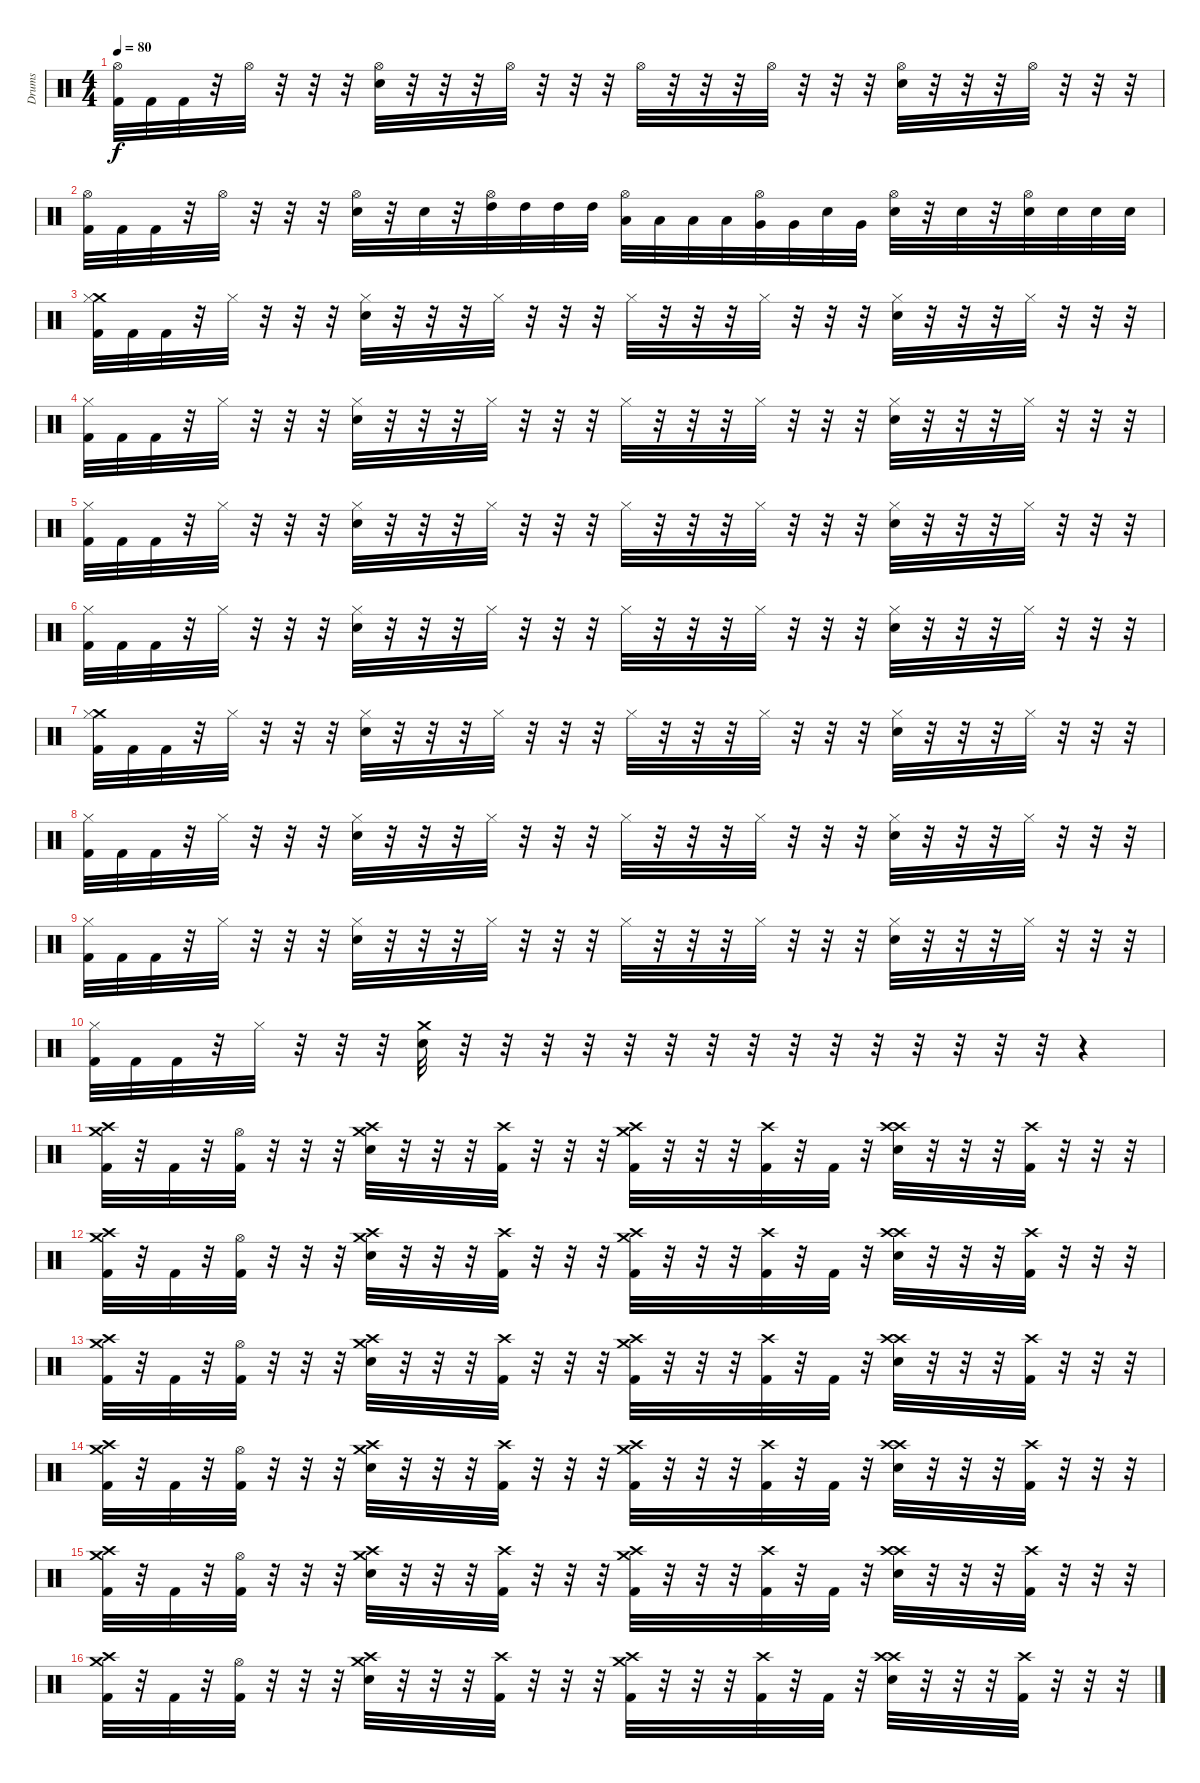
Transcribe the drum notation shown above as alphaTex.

\track ("Drums" "Drums") {instrument percussion}
\staff {score}
\articulation defaults
\ts (4 4)
\tempo 80
\clef neutral
\ks c
("Hi-Hat (open)" "Kick (hit) 2").32{dy f} "Kick (hit) 2".32 "Kick (hit) 2".32 r.32 "Hi-Hat (open)".32 r.32 r.32 r.32 ("Hi-Hat (open)" "Electric Snare (hit)").32 r.32 r.32 r.32 "Hi-Hat (open)".32 r.32 r.32 r.32 "Hi-Hat (open)".32 r.32 r.32 r.32 "Hi-Hat (open)".32 r.32 r.32 r.32 ("Hi-Hat (open)" "Electric Snare (hit)").32 r.32 r.32 r.32 "Hi-Hat (open)".32 r.32 r.32 r.32 |
("Hi-Hat (open)" "Kick (hit) 2").32 "Kick (hit) 2".32 "Kick (hit) 2".32 r.32 "Hi-Hat (open)".32 r.32 r.32 r.32 ("Hi-Hat (open)" "Electric Snare (hit)").32 r.32 "Electric Snare (hit)".32 r.32 ("Hi-Hat (open)" "High Tom (hit)").32 "High Tom (hit)".32 "High Tom (hit)".32 "High Tom (hit)".32 ("Hi-Hat (open)" "Low Tom (hit)").32 "Low Tom (hit)".32 "Low Tom (hit)".32 "Low Tom (hit)".32 ("Hi-Hat (open)" "Very Low Tom (hit)").32 "Very Low Tom (hit)".32 "Electric Snare (hit)".32 "Very Low Tom (hit)".32 ("Hi-Hat (open)" "Electric Snare (hit)").32 r.32 "Electric Snare (hit)".32 r.32 ("Hi-Hat (open)" "Electric Snare (hit)").32 "Electric Snare (hit)".32 "Electric Snare (hit)".32 "Electric Snare (hit)".32 |
("Crash medium (hit)" "Hi-Hat (closed)" "Kick (hit) 2").32 "Kick (hit) 2".32 "Kick (hit) 2".32 r.32 "Hi-Hat (closed)".32 r.32 r.32 r.32 ("Hi-Hat (closed)" "Electric Snare (hit)").32 r.32 r.32 r.32 "Hi-Hat (closed)".32 r.32 r.32 r.32 "Hi-Hat (closed)".32 r.32 r.32 r.32 "Hi-Hat (closed)".32 r.32 r.32 r.32 ("Hi-Hat (closed)" "Electric Snare (hit)").32 r.32 r.32 r.32 "Hi-Hat (closed)".32 r.32 r.32 r.32 |
("Hi-Hat (closed)" "Kick (hit) 2").32 "Kick (hit) 2".32 "Kick (hit) 2".32 r.32 "Hi-Hat (closed)".32 r.32 r.32 r.32 ("Hi-Hat (closed)" "Electric Snare (hit)").32 r.32 r.32 r.32 "Hi-Hat (closed)".32 r.32 r.32 r.32 "Hi-Hat (closed)".32 r.32 r.32 r.32 "Hi-Hat (closed)".32 r.32 r.32 r.32 ("Hi-Hat (closed)" "Electric Snare (hit)").32 r.32 r.32 r.32 "Hi-Hat (closed)".32 r.32 r.32 r.32 |
("Hi-Hat (closed)" "Kick (hit) 2").32 "Kick (hit) 2".32 "Kick (hit) 2".32 r.32 "Hi-Hat (closed)".32 r.32 r.32 r.32 ("Hi-Hat (closed)" "Electric Snare (hit)").32 r.32 r.32 r.32 "Hi-Hat (closed)".32 r.32 r.32 r.32 "Hi-Hat (closed)".32 r.32 r.32 r.32 "Hi-Hat (closed)".32 r.32 r.32 r.32 ("Hi-Hat (closed)" "Electric Snare (hit)").32 r.32 r.32 r.32 "Hi-Hat (closed)".32 r.32 r.32 r.32 |
("Hi-Hat (closed)" "Kick (hit) 2").32 "Kick (hit) 2".32 "Kick (hit) 2".32 r.32 "Hi-Hat (closed)".32 r.32 r.32 r.32 ("Hi-Hat (closed)" "Electric Snare (hit)").32 r.32 r.32 r.32 "Hi-Hat (closed)".32 r.32 r.32 r.32 "Hi-Hat (closed)".32 r.32 r.32 r.32 "Hi-Hat (closed)".32 r.32 r.32 r.32 ("Hi-Hat (closed)" "Electric Snare (hit)").32 r.32 r.32 r.32 "Hi-Hat (closed)".32 r.32 r.32 r.32 |
("Crash medium (hit)" "Hi-Hat (closed)" "Kick (hit) 2").32 "Kick (hit) 2".32 "Kick (hit) 2".32 r.32 "Hi-Hat (closed)".32 r.32 r.32 r.32 ("Hi-Hat (closed)" "Electric Snare (hit)").32 r.32 r.32 r.32 "Hi-Hat (closed)".32 r.32 r.32 r.32 "Hi-Hat (closed)".32 r.32 r.32 r.32 "Hi-Hat (closed)".32 r.32 r.32 r.32 ("Hi-Hat (closed)" "Electric Snare (hit)").32 r.32 r.32 r.32 "Hi-Hat (closed)".32 r.32 r.32 r.32 |
("Hi-Hat (closed)" "Kick (hit) 2").32 "Kick (hit) 2".32 "Kick (hit) 2".32 r.32 "Hi-Hat (closed)".32 r.32 r.32 r.32 ("Hi-Hat (closed)" "Electric Snare (hit)").32 r.32 r.32 r.32 "Hi-Hat (closed)".32 r.32 r.32 r.32 "Hi-Hat (closed)".32 r.32 r.32 r.32 "Hi-Hat (closed)".32 r.32 r.32 r.32 ("Hi-Hat (closed)" "Electric Snare (hit)").32 r.32 r.32 r.32 "Hi-Hat (closed)".32 r.32 r.32 r.32 |
("Hi-Hat (closed)" "Kick (hit) 2").32 "Kick (hit) 2".32 "Kick (hit) 2".32 r.32 "Hi-Hat (closed)".32 r.32 r.32 r.32 ("Hi-Hat (closed)" "Electric Snare (hit)").32 r.32 r.32 r.32 "Hi-Hat (closed)".32 r.32 r.32 r.32 "Hi-Hat (closed)".32 r.32 r.32 r.32 "Hi-Hat (closed)".32 r.32 r.32 r.32 ("Hi-Hat (closed)" "Electric Snare (hit)").32 r.32 r.32 r.32 "Hi-Hat (closed)".32 r.32 r.32 r.32 |
("Hi-Hat (closed)" "Kick (hit) 2").32 "Kick (hit) 2".32 "Kick (hit) 2".32 r.32 "Hi-Hat (closed)".32 r.32 r.32 r.32 ("Crash medium (hit)" "Electric Snare (hit)").32 r.32 r.32 r.32 r.32 r.32 r.32 r.32 r.32 r.32 r.32 r.32 r.32 r.32 r.32 r.32 r.4 |
("Crash high (hit)" "Crash medium (hit)" "Kick (hit) 2").32{volume 15} r.32 "Kick (hit) 2".32 r.32 ("Hi-Hat (open)" "Kick (hit) 2").32 r.32 r.32 r.32 ("Crash high (hit)" "Crash medium (hit)" "Electric Snare (hit)").32 r.32 r.32 r.32 ("Crash high (hit)" "Kick (hit) 2").32 r.32 r.32 r.32 ("Crash high (hit)" "Crash medium (hit)" "Kick (hit) 2").32 r.32 r.32 r.32 ("Crash high (hit)" "Kick (hit) 2").32 r.32 "Kick (hit) 2".32 r.32 ("Crash high (hit)" "Crash high (hit)" "Electric Snare (hit)").32 r.32 r.32 r.32 ("Crash high (hit)" "Kick (hit) 2").32 r.32 r.32 r.32 |
("Crash high (hit)" "Crash medium (hit)" "Kick (hit) 2").32{volume 15} r.32 "Kick (hit) 2".32 r.32 ("Hi-Hat (open)" "Kick (hit) 2").32 r.32 r.32 r.32 ("Crash high (hit)" "Crash medium (hit)" "Electric Snare (hit)").32 r.32 r.32 r.32 ("Crash high (hit)" "Kick (hit) 2").32 r.32 r.32 r.32 ("Crash high (hit)" "Crash medium (hit)" "Kick (hit) 2").32 r.32 r.32 r.32 ("Crash high (hit)" "Kick (hit) 2").32 r.32 "Kick (hit) 2".32 r.32 ("Crash high (hit)" "Crash high (hit)" "Electric Snare (hit)").32 r.32 r.32 r.32 ("Crash high (hit)" "Kick (hit) 2").32 r.32 r.32 r.32 |
("Crash high (hit)" "Crash medium (hit)" "Kick (hit) 2").32{volume 15} r.32 "Kick (hit) 2".32 r.32 ("Hi-Hat (open)" "Kick (hit) 2").32 r.32 r.32 r.32 ("Crash high (hit)" "Crash medium (hit)" "Electric Snare (hit)").32 r.32 r.32 r.32 ("Crash high (hit)" "Kick (hit) 2").32 r.32 r.32 r.32 ("Crash high (hit)" "Crash medium (hit)" "Kick (hit) 2").32 r.32 r.32 r.32 ("Crash high (hit)" "Kick (hit) 2").32 r.32 "Kick (hit) 2".32 r.32 ("Crash high (hit)" "Crash high (hit)" "Electric Snare (hit)").32 r.32 r.32 r.32 ("Crash high (hit)" "Kick (hit) 2").32 r.32 r.32 r.32 |
("Crash high (hit)" "Crash medium (hit)" "Kick (hit) 2").32{volume 15} r.32 "Kick (hit) 2".32 r.32 ("Hi-Hat (open)" "Kick (hit) 2").32 r.32 r.32 r.32 ("Crash high (hit)" "Crash medium (hit)" "Electric Snare (hit)").32 r.32 r.32 r.32 ("Crash high (hit)" "Kick (hit) 2").32 r.32 r.32 r.32 ("Crash high (hit)" "Crash medium (hit)" "Kick (hit) 2").32 r.32 r.32 r.32 ("Crash high (hit)" "Kick (hit) 2").32 r.32 "Kick (hit) 2".32 r.32 ("Crash high (hit)" "Crash high (hit)" "Electric Snare (hit)").32 r.32 r.32 r.32 ("Crash high (hit)" "Kick (hit) 2").32 r.32 r.32 r.32 |
("Crash high (hit)" "Crash medium (hit)" "Kick (hit) 2").32{volume 15} r.32 "Kick (hit) 2".32 r.32 ("Hi-Hat (open)" "Kick (hit) 2").32 r.32 r.32 r.32 ("Crash high (hit)" "Crash medium (hit)" "Electric Snare (hit)").32 r.32 r.32 r.32 ("Crash high (hit)" "Kick (hit) 2").32 r.32 r.32 r.32 ("Crash high (hit)" "Crash medium (hit)" "Kick (hit) 2").32 r.32 r.32 r.32 ("Crash high (hit)" "Kick (hit) 2").32 r.32 "Kick (hit) 2".32 r.32 ("Crash high (hit)" "Crash high (hit)" "Electric Snare (hit)").32 r.32 r.32 r.32 ("Crash high (hit)" "Kick (hit) 2").32 r.32 r.32 r.32 |
("Crash high (hit)" "Crash medium (hit)" "Kick (hit) 2").32{volume 15} r.32 "Kick (hit) 2".32 r.32 ("Hi-Hat (open)" "Kick (hit) 2").32 r.32 r.32 r.32 ("Crash high (hit)" "Crash medium (hit)" "Electric Snare (hit)").32 r.32 r.32 r.32 ("Crash high (hit)" "Kick (hit) 2").32 r.32 r.32 r.32 ("Crash high (hit)" "Crash medium (hit)" "Kick (hit) 2").32 r.32 r.32 r.32 ("Crash high (hit)" "Kick (hit) 2").32 r.32 "Kick (hit) 2".32 r.32 ("Crash high (hit)" "Crash high (hit)" "Electric Snare (hit)").32 r.32 r.32 r.32 ("Crash high (hit)" "Kick (hit) 2").32 r.32 r.32 r.32
